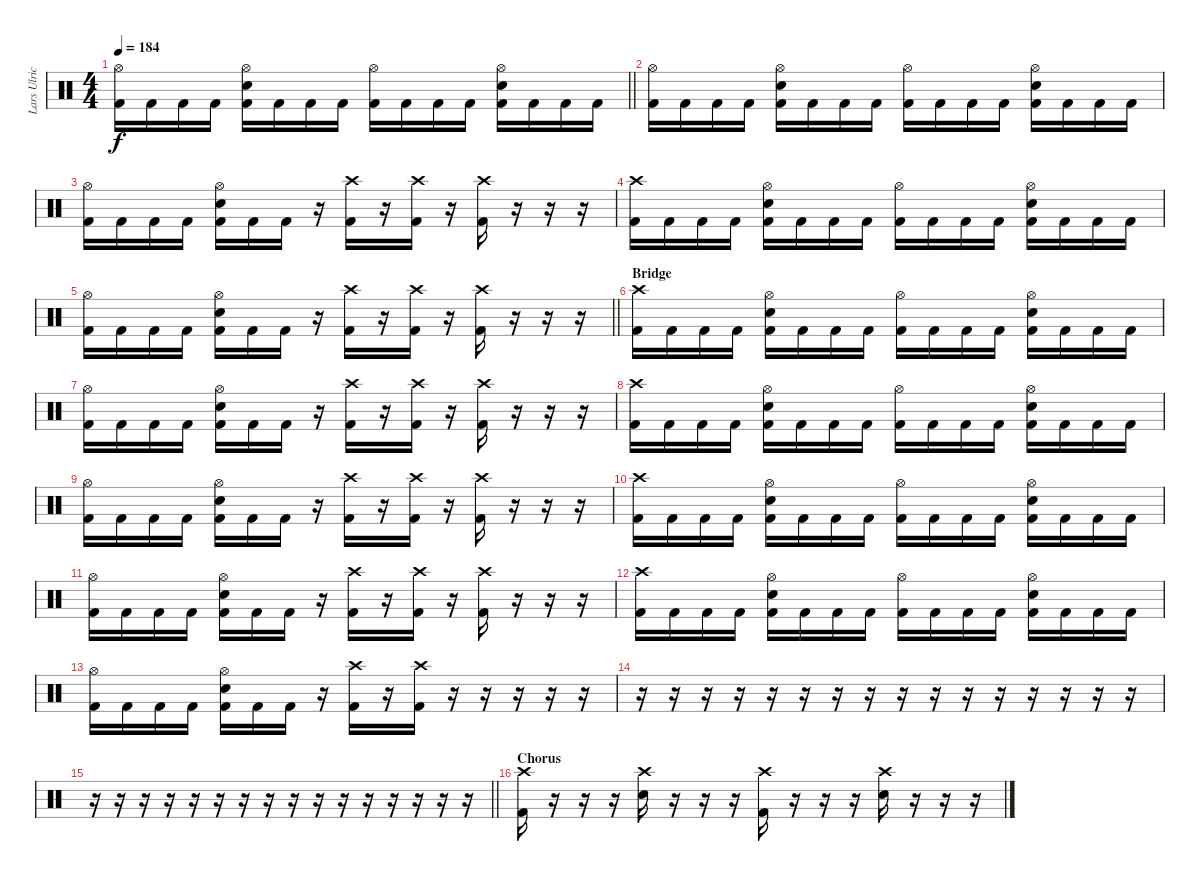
\track ("Lars Ulrich" "Lars Ulric") {instrument percussion}
\staff {score}
\articulation defaults
\ts (4 4)
\tempo 184
\clef neutral
\barLineRight lightlight
\ks c
("Hi-Hat (open)" "Kick (hit) 2").16{dy f} "Kick (hit) 2".16 "Kick (hit) 2".16 "Kick (hit) 2".16 ("Electric Snare (hit)" "Hi-Hat (open)" "Kick (hit) 2").16 "Kick (hit) 2".16 "Kick (hit) 2".16 "Kick (hit) 2".16 ("Hi-Hat (open)" "Kick (hit) 2").16 "Kick (hit) 2".16 "Kick (hit) 2".16 "Kick (hit) 2".16 ("Electric Snare (hit)" "Hi-Hat (open)" "Kick (hit) 2").16 "Kick (hit) 2".16 "Kick (hit) 2".16 "Kick (hit) 2".16 |
\section ("" "")
("Hi-Hat (open)" "Kick (hit) 2").16 "Kick (hit) 2".16 "Kick (hit) 2".16 "Kick (hit) 2".16 ("Electric Snare (hit)" "Hi-Hat (open)" "Kick (hit) 2").16 "Kick (hit) 2".16 "Kick (hit) 2".16 "Kick (hit) 2".16 ("Hi-Hat (open)" "Kick (hit) 2").16 "Kick (hit) 2".16 "Kick (hit) 2".16 "Kick (hit) 2".16 ("Electric Snare (hit)" "Hi-Hat (open)" "Kick (hit) 2").16 "Kick (hit) 2".16 "Kick (hit) 2".16 "Kick (hit) 2".16 |
("Hi-Hat (open)" "Kick (hit) 2").16 "Kick (hit) 2".16 "Kick (hit) 2".16 "Kick (hit) 2".16 ("Electric Snare (hit)" "Hi-Hat (open)" "Kick (hit) 2").16 "Kick (hit) 2".16 "Kick (hit) 2".16 r.16 ("Crash high (hit)" "Kick (hit) 2").16 r.16 ("Crash high (hit)" "Kick (hit) 2").16 r.16 ("Crash high (hit)" "Kick (hit) 2").16 r.16 r.16 r.16 |
("Crash high (hit)" "Kick (hit) 2").16 "Kick (hit) 2".16 "Kick (hit) 2".16 "Kick (hit) 2".16 ("Electric Snare (hit)" "Hi-Hat (open)" "Kick (hit) 2").16 "Kick (hit) 2".16 "Kick (hit) 2".16 "Kick (hit) 2".16 ("Hi-Hat (open)" "Kick (hit) 2").16 "Kick (hit) 2".16 "Kick (hit) 2".16 "Kick (hit) 2".16 ("Electric Snare (hit)" "Hi-Hat (open)" "Kick (hit) 2").16 "Kick (hit) 2".16 "Kick (hit) 2".16 "Kick (hit) 2".16 |
\barLineRight lightlight
("Hi-Hat (open)" "Kick (hit) 2").16 "Kick (hit) 2".16 "Kick (hit) 2".16 "Kick (hit) 2".16 ("Electric Snare (hit)" "Hi-Hat (open)" "Kick (hit) 2").16 "Kick (hit) 2".16 "Kick (hit) 2".16 r.16 ("Crash high (hit)" "Kick (hit) 2").16 r.16 ("Crash high (hit)" "Kick (hit) 2").16 r.16 ("Crash high (hit)" "Kick (hit) 2").16 r.16 r.16 r.16 |
\section ("" "Bridge")
("Crash high (hit)" "Kick (hit) 2").16 "Kick (hit) 2".16 "Kick (hit) 2".16 "Kick (hit) 2".16 ("Electric Snare (hit)" "Hi-Hat (open)" "Kick (hit) 2").16 "Kick (hit) 2".16 "Kick (hit) 2".16 "Kick (hit) 2".16 ("Hi-Hat (open)" "Kick (hit) 2").16 "Kick (hit) 2".16 "Kick (hit) 2".16 "Kick (hit) 2".16 ("Electric Snare (hit)" "Hi-Hat (open)" "Kick (hit) 2").16 "Kick (hit) 2".16 "Kick (hit) 2".16 "Kick (hit) 2".16 |
("Hi-Hat (open)" "Kick (hit) 2").16 "Kick (hit) 2".16 "Kick (hit) 2".16 "Kick (hit) 2".16 ("Electric Snare (hit)" "Hi-Hat (open)" "Kick (hit) 2").16 "Kick (hit) 2".16 "Kick (hit) 2".16 r.16 ("Crash high (hit)" "Kick (hit) 2").16 r.16 ("Crash high (hit)" "Kick (hit) 2").16 r.16 ("Crash high (hit)" "Kick (hit) 2").16 r.16 r.16 r.16 |
("Crash high (hit)" "Kick (hit) 2").16 "Kick (hit) 2".16 "Kick (hit) 2".16 "Kick (hit) 2".16 ("Electric Snare (hit)" "Hi-Hat (open)" "Kick (hit) 2").16 "Kick (hit) 2".16 "Kick (hit) 2".16 "Kick (hit) 2".16 ("Hi-Hat (open)" "Kick (hit) 2").16 "Kick (hit) 2".16 "Kick (hit) 2".16 "Kick (hit) 2".16 ("Electric Snare (hit)" "Hi-Hat (open)" "Kick (hit) 2").16 "Kick (hit) 2".16 "Kick (hit) 2".16 "Kick (hit) 2".16 |
("Hi-Hat (open)" "Kick (hit) 2").16 "Kick (hit) 2".16 "Kick (hit) 2".16 "Kick (hit) 2".16 ("Electric Snare (hit)" "Hi-Hat (open)" "Kick (hit) 2").16 "Kick (hit) 2".16 "Kick (hit) 2".16 r.16 ("Crash high (hit)" "Kick (hit) 2").16 r.16 ("Crash high (hit)" "Kick (hit) 2").16 r.16 ("Crash high (hit)" "Kick (hit) 2").16 r.16 r.16 r.16 |
("Crash high (hit)" "Kick (hit) 2").16 "Kick (hit) 2".16 "Kick (hit) 2".16 "Kick (hit) 2".16 ("Electric Snare (hit)" "Hi-Hat (open)" "Kick (hit) 2").16 "Kick (hit) 2".16 "Kick (hit) 2".16 "Kick (hit) 2".16 ("Hi-Hat (open)" "Kick (hit) 2").16 "Kick (hit) 2".16 "Kick (hit) 2".16 "Kick (hit) 2".16 ("Electric Snare (hit)" "Hi-Hat (open)" "Kick (hit) 2").16 "Kick (hit) 2".16 "Kick (hit) 2".16 "Kick (hit) 2".16 |
("Hi-Hat (open)" "Kick (hit) 2").16 "Kick (hit) 2".16 "Kick (hit) 2".16 "Kick (hit) 2".16 ("Electric Snare (hit)" "Hi-Hat (open)" "Kick (hit) 2").16 "Kick (hit) 2".16 "Kick (hit) 2".16 r.16 ("Crash high (hit)" "Kick (hit) 2").16 r.16 ("Crash high (hit)" "Kick (hit) 2").16 r.16 ("Crash high (hit)" "Kick (hit) 2").16 r.16 r.16 r.16 |
("Crash high (hit)" "Kick (hit) 2").16 "Kick (hit) 2".16 "Kick (hit) 2".16 "Kick (hit) 2".16 ("Electric Snare (hit)" "Hi-Hat (open)" "Kick (hit) 2").16 "Kick (hit) 2".16 "Kick (hit) 2".16 "Kick (hit) 2".16 ("Hi-Hat (open)" "Kick (hit) 2").16 "Kick (hit) 2".16 "Kick (hit) 2".16 "Kick (hit) 2".16 ("Electric Snare (hit)" "Hi-Hat (open)" "Kick (hit) 2").16 "Kick (hit) 2".16 "Kick (hit) 2".16 "Kick (hit) 2".16 |
("Hi-Hat (open)" "Kick (hit) 2").16 "Kick (hit) 2".16 "Kick (hit) 2".16 "Kick (hit) 2".16 ("Electric Snare (hit)" "Hi-Hat (open)" "Kick (hit) 2").16 "Kick (hit) 2".16 "Kick (hit) 2".16 r.16 ("Crash high (hit)" "Kick (hit) 2").16 r.16 ("Crash high (hit)" "Kick (hit) 2").16 r.16 r.16 r.16{volume 0} r.16 r.16 |
r.16 r.16 r.16 r.16 r.16 r.16 r.16 r.16 r.16 r.16 r.16 r.16 r.16 r.16 r.16 r.16 |
\barLineRight lightlight
r.16 r.16 r.16 r.16 r.16 r.16 r.16 r.16 r.16 r.16 r.16 r.16 r.16 r.16 r.16 r.16 |
\section ("" "Chorus")
("Crash high (hit)" "Kick (hit) 2").16{volume 10} r.16 r.16 r.16 ("Crash high (hit)" "Electric Snare (hit)").16 r.16 r.16 r.16 ("Crash high (hit)" "Kick (hit) 2").16 r.16 r.16 r.16 ("Crash high (hit)" "Electric Snare (hit)").16 r.16 r.16 r.16
